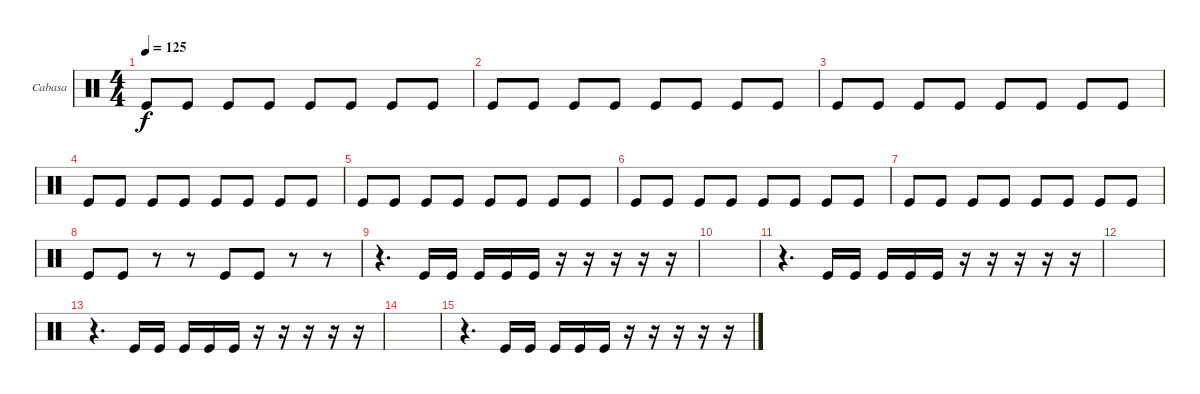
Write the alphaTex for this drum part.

\bracketExtendMode groupsimilarinstruments
\firstSystemTrackNameOrientation horizontal
\otherSystemsTrackNameOrientation horizontal
\track ("Cabasa" "Cabasa") {instrument percussion}
\staff {score}
\articulation defaults
\ts (4 4)
\tempo 125
\clef neutral
\ks c "Kick (hit)".8{dy f} "Kick (hit)".8 "Kick (hit)".8 "Kick (hit)".8 "Kick (hit)".8 "Kick (hit)".8 "Kick (hit)".8 "Kick (hit)".8
|
"Kick (hit)".8 "Kick (hit)".8 "Kick (hit)".8 "Kick (hit)".8 "Kick (hit)".8 "Kick (hit)".8 "Kick (hit)".8 "Kick (hit)".8 |
"Kick (hit)".8 "Kick (hit)".8 "Kick (hit)".8 "Kick (hit)".8 "Kick (hit)".8 "Kick (hit)".8 "Kick (hit)".8 "Kick (hit)".8 |
"Kick (hit)".8 "Kick (hit)".8 "Kick (hit)".8 "Kick (hit)".8 "Kick (hit)".8 "Kick (hit)".8 "Kick (hit)".8 "Kick (hit)".8 |
"Kick (hit)".8 "Kick (hit)".8 "Kick (hit)".8 "Kick (hit)".8 "Kick (hit)".8 "Kick (hit)".8 "Kick (hit)".8 "Kick (hit)".8 |
"Kick (hit)".8 "Kick (hit)".8 "Kick (hit)".8 "Kick (hit)".8 "Kick (hit)".8 "Kick (hit)".8 "Kick (hit)".8 "Kick (hit)".8 |
"Kick (hit)".8 "Kick (hit)".8 "Kick (hit)".8 "Kick (hit)".8 "Kick (hit)".8 "Kick (hit)".8 "Kick (hit)".8 "Kick (hit)".8 |
"Kick (hit)".8 "Kick (hit)".8 r.8 r.8 "Kick (hit)".8 "Kick (hit)".8 r.8 r.8 |
r.4{d} "Kick (hit)".16 "Kick (hit)".16 "Kick (hit)".16 "Kick (hit)".16 "Kick (hit)".16 r.16 r.16 r.16 r.16 r.16 |
|
r.4{d} "Kick (hit)".16 "Kick (hit)".16 "Kick (hit)".16 "Kick (hit)".16 "Kick (hit)".16 r.16 r.16 r.16 r.16 r.16 |
|
r.4{d} "Kick (hit)".16 "Kick (hit)".16 "Kick (hit)".16 "Kick (hit)".16 "Kick (hit)".16 r.16 r.16 r.16 r.16 r.16 |
|
r.4{d} "Kick (hit)".16 "Kick (hit)".16 "Kick (hit)".16 "Kick (hit)".16 "Kick (hit)".16 r.16 r.16 r.16 r.16 r.16
